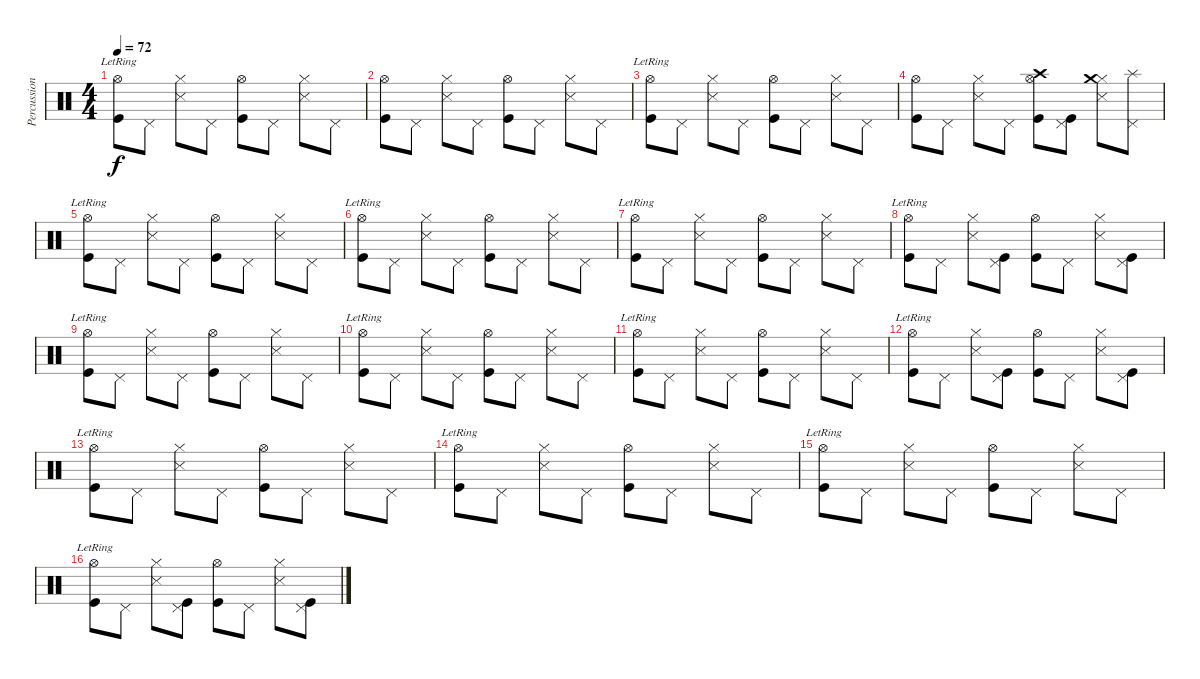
\track ("Percussion" "Percussion") {instrument percussion}
\staff {score}
\articulation defaults
\ts (4 4)
\tempo 72
\clef neutral
\ks c
("Hi-Hat (open)"{lr} "Kick (hit)").8{dy f} "Pedal Hi-Hat (hit)".8 ("Hi-Hat (closed)" "Snare (side stick) 3").8 "Pedal Hi-Hat (hit)".8 ("Hi-Hat (open)" "Kick (hit)").8 "Pedal Hi-Hat (hit)".8 ("Hi-Hat (closed)" "Snare (side stick) 3").8 "Pedal Hi-Hat (hit)".8 |
("Hi-Hat (open)" "Kick (hit)").8 "Pedal Hi-Hat (hit)".8 ("Hi-Hat (closed)" "Snare (side stick) 3").8 "Pedal Hi-Hat (hit)".8 ("Hi-Hat (open)" "Kick (hit)").8 "Pedal Hi-Hat (hit)".8 ("Hi-Hat (closed)" "Snare (side stick) 3").8 "Pedal Hi-Hat (hit)".8 |
("Hi-Hat (open)"{lr} "Kick (hit)").8 "Pedal Hi-Hat (hit)".8 ("Hi-Hat (closed)" "Snare (side stick) 3").8 "Pedal Hi-Hat (hit)".8 ("Hi-Hat (open)" "Kick (hit)").8 "Pedal Hi-Hat (hit)".8 ("Hi-Hat (closed)" "Snare (side stick) 3").8 "Pedal Hi-Hat (hit)".8 |
("Hi-Hat (open)" "Kick (hit)").8 "Pedal Hi-Hat (hit)".8 ("Hi-Hat (closed)" "Snare (side stick) 3").8 "Pedal Hi-Hat (hit)".8 ("Hi-Hat (open)" "Crash high (hit)" "Kick (hit)").8 ("Pedal Hi-Hat (hit)" "Kick (hit)").8 ("Hi-Hat (closed)" "Crash medium (hit)" "Snare (side stick) 3").8 ("Pedal Hi-Hat (hit)" "Splash (hit)").8 |
("Hi-Hat (open)"{lr} "Kick (hit)").8 "Pedal Hi-Hat (hit)".8 ("Hi-Hat (closed)" "Snare (side stick) 3").8 "Pedal Hi-Hat (hit)".8 ("Hi-Hat (open)" "Kick (hit)").8 "Pedal Hi-Hat (hit)".8 ("Hi-Hat (closed)" "Snare (side stick) 3").8 "Pedal Hi-Hat (hit)".8 |
("Hi-Hat (open)"{lr} "Kick (hit)").8 "Pedal Hi-Hat (hit)".8 ("Hi-Hat (closed)" "Snare (side stick) 3").8 "Pedal Hi-Hat (hit)".8 ("Hi-Hat (open)" "Kick (hit)").8 "Pedal Hi-Hat (hit)".8 ("Hi-Hat (closed)" "Snare (side stick) 3").8 "Pedal Hi-Hat (hit)".8 |
("Hi-Hat (open)"{lr} "Kick (hit)").8 "Pedal Hi-Hat (hit)".8 ("Hi-Hat (closed)" "Snare (side stick) 3").8 "Pedal Hi-Hat (hit)".8 ("Hi-Hat (open)" "Kick (hit)").8 "Pedal Hi-Hat (hit)".8 ("Hi-Hat (closed)" "Snare (side stick) 3").8 "Pedal Hi-Hat (hit)".8 |
("Hi-Hat (open)"{lr} "Kick (hit)").8 "Pedal Hi-Hat (hit)".8 ("Hi-Hat (closed)" "Snare (side stick) 3").8 ("Pedal Hi-Hat (hit)" "Kick (hit)").8 ("Hi-Hat (open)" "Kick (hit)").8 "Pedal Hi-Hat (hit)".8 ("Hi-Hat (closed)" "Snare (side stick) 3").8 ("Pedal Hi-Hat (hit)" "Kick (hit)").8 |
("Hi-Hat (open)"{lr} "Kick (hit)").8 "Pedal Hi-Hat (hit)".8 ("Hi-Hat (closed)" "Snare (side stick) 3").8 "Pedal Hi-Hat (hit)".8 ("Hi-Hat (open)" "Kick (hit)").8 "Pedal Hi-Hat (hit)".8 ("Hi-Hat (closed)" "Snare (side stick) 3").8 "Pedal Hi-Hat (hit)".8 |
("Hi-Hat (open)"{lr} "Kick (hit)").8 "Pedal Hi-Hat (hit)".8 ("Hi-Hat (closed)" "Snare (side stick) 3").8 "Pedal Hi-Hat (hit)".8 ("Hi-Hat (open)" "Kick (hit)").8 "Pedal Hi-Hat (hit)".8 ("Hi-Hat (closed)" "Snare (side stick) 3").8 "Pedal Hi-Hat (hit)".8 |
("Hi-Hat (open)"{lr} "Kick (hit)").8 "Pedal Hi-Hat (hit)".8 ("Hi-Hat (closed)" "Snare (side stick) 3").8 "Pedal Hi-Hat (hit)".8 ("Hi-Hat (open)" "Kick (hit)").8 "Pedal Hi-Hat (hit)".8 ("Hi-Hat (closed)" "Snare (side stick) 3").8 "Pedal Hi-Hat (hit)".8 |
("Hi-Hat (open)"{lr} "Kick (hit)").8 "Pedal Hi-Hat (hit)".8 ("Hi-Hat (closed)" "Snare (side stick) 3").8 ("Pedal Hi-Hat (hit)" "Kick (hit)").8 ("Hi-Hat (open)" "Kick (hit)").8 "Pedal Hi-Hat (hit)".8 ("Hi-Hat (closed)" "Snare (side stick) 3").8 ("Pedal Hi-Hat (hit)" "Kick (hit)").8 |
("Hi-Hat (open)"{lr} "Kick (hit)").8 "Pedal Hi-Hat (hit)".8 ("Hi-Hat (closed)" "Snare (side stick) 3").8 "Pedal Hi-Hat (hit)".8 ("Hi-Hat (open)" "Kick (hit)").8 "Pedal Hi-Hat (hit)".8 ("Hi-Hat (closed)" "Snare (side stick) 3").8 "Pedal Hi-Hat (hit)".8 |
("Hi-Hat (open)"{lr} "Kick (hit)").8 "Pedal Hi-Hat (hit)".8 ("Hi-Hat (closed)" "Snare (side stick) 3").8 "Pedal Hi-Hat (hit)".8 ("Hi-Hat (open)" "Kick (hit)").8 "Pedal Hi-Hat (hit)".8 ("Hi-Hat (closed)" "Snare (side stick) 3").8 "Pedal Hi-Hat (hit)".8 |
("Hi-Hat (open)"{lr} "Kick (hit)").8 "Pedal Hi-Hat (hit)".8 ("Hi-Hat (closed)" "Snare (side stick) 3").8 "Pedal Hi-Hat (hit)".8 ("Hi-Hat (open)" "Kick (hit)").8 "Pedal Hi-Hat (hit)".8 ("Hi-Hat (closed)" "Snare (side stick) 3").8 "Pedal Hi-Hat (hit)".8 |
("Hi-Hat (open)"{lr} "Kick (hit)").8 "Pedal Hi-Hat (hit)".8 ("Hi-Hat (closed)" "Snare (side stick) 3").8 ("Pedal Hi-Hat (hit)" "Kick (hit)").8 ("Hi-Hat (open)" "Kick (hit)").8 "Pedal Hi-Hat (hit)".8 ("Hi-Hat (closed)" "Snare (side stick) 3").8 ("Pedal Hi-Hat (hit)" "Kick (hit)").8
